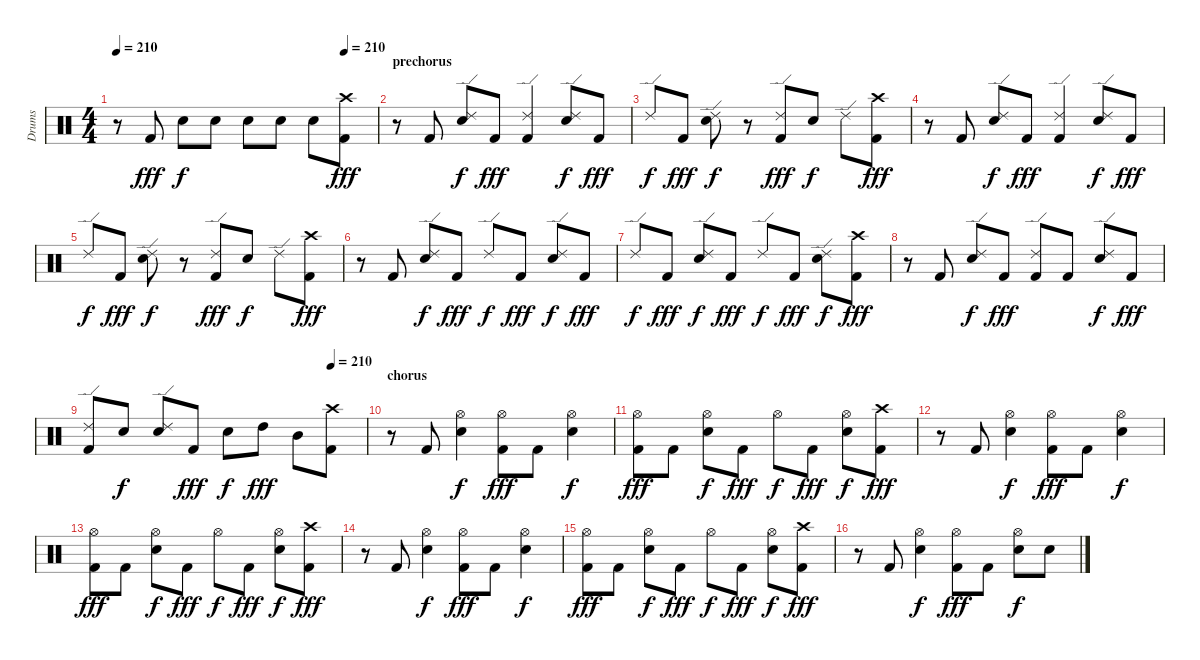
\track ("Drums" "Drums") {instrument percussion}
\staff {score}
\articulation defaults
\ts (4 4)
\tempo 210
\tempo (210 0.875)
\clef neutral
\ks c
r.8{dy fff} "Kick (hit) 2".8 "Snare (hit) 2".8{dy f} "Snare (hit) 2".8 "Snare (hit) 2".8 "Snare (hit) 2".8 "Snare (hit) 2".8 ("Crash high (hit)" "Kick (hit) 2").8{dy fff} |
\section ("" "prechorus")
r.8 "Kick (hit) 2".8 ("Ride (edge) 2" "Snare (hit) 2").8{dy f} "Kick (hit) 2".8{dy fff} ("Ride (edge) 2" "Kick (hit) 2").4 ("Ride (edge) 2" "Snare (hit) 2").8{dy f} "Kick (hit) 2".8{dy fff} |
"Ride (edge) 2".8{dy f} "Kick (hit) 2".8{dy fff} ("Ride (edge) 2" "Snare (hit) 2").8{dy f} r.8 ("Ride (edge) 2" "Kick (hit) 2").8{dy fff} "Snare (hit) 2".8{dy f} "Ride (edge) 2".8 ("Crash high (hit)" "Kick (hit) 2").8{dy fff} |
r.8 "Kick (hit) 2".8 ("Ride (edge) 2" "Snare (hit) 2").8{dy f} "Kick (hit) 2".8{dy fff} ("Ride (edge) 2" "Kick (hit) 2").4 ("Ride (edge) 2" "Snare (hit) 2").8{dy f} "Kick (hit) 2".8{dy fff} |
"Ride (edge) 2".8{dy f} "Kick (hit) 2".8{dy fff} ("Ride (edge) 2" "Snare (hit) 2").8{dy f} r.8 ("Ride (edge) 2" "Kick (hit) 2").8{dy fff} "Snare (hit) 2".8{dy f} "Ride (edge) 2".8 ("Crash high (hit)" "Kick (hit) 2").8{dy fff} |
r.8 "Kick (hit) 2".8 ("Ride (edge) 2" "Snare (hit) 2").8{dy f} "Kick (hit) 2".8{dy fff} "Ride (edge) 2".8{dy f} "Kick (hit) 2".8{dy fff} ("Ride (edge) 2" "Snare (hit) 2").8{dy f} "Kick (hit) 2".8{dy fff} |
"Ride (edge) 2".8{dy f} "Kick (hit) 2".8{dy fff} ("Ride (edge) 2" "Snare (hit) 2").8{dy f} "Kick (hit) 2".8{dy fff} "Ride (edge) 2".8{dy f} "Kick (hit) 2".8{dy fff} ("Ride (edge) 2" "Snare (hit) 2").8{dy f} ("Crash high (hit)" "Kick (hit) 2").8{dy fff} |
r.8 "Kick (hit) 2".8 ("Ride (edge) 2" "Snare (hit) 2").8{dy f} "Kick (hit) 2".8{dy fff} ("Ride (edge) 2" "Kick (hit) 2").8 "Kick (hit) 2".8 ("Ride (edge) 2" "Snare (hit) 2").8{dy f} "Kick (hit) 2".8{dy fff} |
\tempo (210 0.875)
("Ride (edge) 2" "Kick (hit) 2").8 "Snare (hit) 2".8{dy f} ("Ride (edge) 2" "Snare (hit) 2").8 "Kick (hit) 2".8{dy fff} "Snare (hit) 2".8{dy f} "High Tom (hit)".8{dy fff} "Mid Tom (hit)".8 ("Crash high (hit)" "Kick (hit) 2").8 |
\section ("" "chorus")
r.8 "Kick (hit) 2".8 ("Hi-Hat (open)" "Snare (hit) 2").4{dy f} ("Hi-Hat (open)" "Kick (hit) 2").8{dy fff} "Kick (hit) 2".8 ("Hi-Hat (open)" "Snare (hit) 2").4{dy f} |
("Hi-Hat (open)" "Kick (hit) 2").8{dy fff} "Kick (hit) 2".8 ("Hi-Hat (open)" "Snare (hit) 2").8{dy f} "Kick (hit) 2".8{dy fff} "Hi-Hat (open)".8{dy f} "Kick (hit) 2".8{dy fff} ("Hi-Hat (open)" "Snare (hit) 2").8{dy f} ("Crash high (hit)" "Kick (hit) 2").8{dy fff} |
r.8 "Kick (hit) 2".8 ("Hi-Hat (open)" "Snare (hit) 2").4{dy f} ("Hi-Hat (open)" "Kick (hit) 2").8{dy fff} "Kick (hit) 2".8 ("Hi-Hat (open)" "Snare (hit) 2").4{dy f} |
("Hi-Hat (open)" "Kick (hit) 2").8{dy fff} "Kick (hit) 2".8 ("Hi-Hat (open)" "Snare (hit) 2").8{dy f} "Kick (hit) 2".8{dy fff} "Hi-Hat (open)".8{dy f} "Kick (hit) 2".8{dy fff} ("Hi-Hat (open)" "Snare (hit) 2").8{dy f} ("Crash high (hit)" "Kick (hit) 2").8{dy fff} |
r.8 "Kick (hit) 2".8 ("Hi-Hat (open)" "Snare (hit) 2").4{dy f} ("Hi-Hat (open)" "Kick (hit) 2").8{dy fff} "Kick (hit) 2".8 ("Hi-Hat (open)" "Snare (hit) 2").4{dy f} |
("Hi-Hat (open)" "Kick (hit) 2").8{dy fff} "Kick (hit) 2".8 ("Hi-Hat (open)" "Snare (hit) 2").8{dy f} "Kick (hit) 2".8{dy fff} "Hi-Hat (open)".8{dy f} "Kick (hit) 2".8{dy fff} ("Hi-Hat (open)" "Snare (hit) 2").8{dy f} ("Crash high (hit)" "Kick (hit) 2").8{dy fff} |
r.8 "Kick (hit) 2".8 ("Hi-Hat (open)" "Snare (hit) 2").4{dy f} ("Hi-Hat (open)" "Kick (hit) 2").8{dy fff} "Kick (hit) 2".8 ("Hi-Hat (open)" "Snare (hit) 2").8{dy f} "Snare (hit) 2".8
